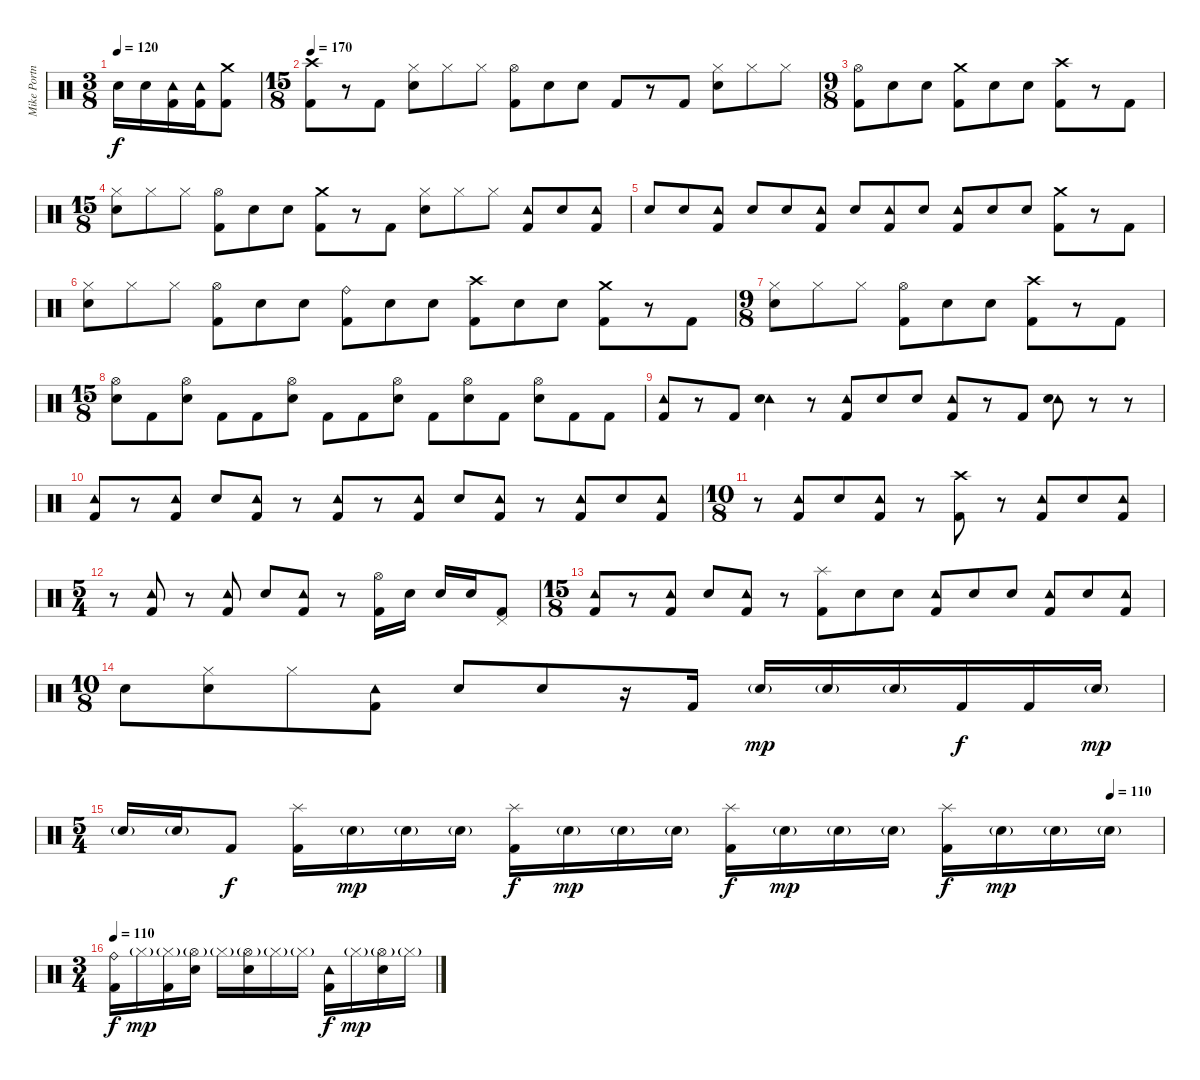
\track ("Mike Portnoy" "Mike Portn") {instrument percussion}
\staff {score}
\articulation defaults
\ts (3 8)
\tempo 120
\clef neutral
\ks c "Snare (hit) 2".16{dy f} "Snare (hit) 2".16
("Tambourine (hit)" "Kick (hit) 2").16 ("Tambourine (hit)" "Kick (hit) 2").16 ("Crash medium (hit)" "Kick (hit) 2").8 |
\ts (15 8)
\tempo 170
("Crash high (hit)" "Kick (hit) 2").8 r.8 "Kick (hit) 2".8 ("Hi-Hat (closed)" "Snare (hit) 2").8 "Hi-Hat (closed)".8 "Hi-Hat (closed)".8 ("Hi-Hat (open)" "Kick (hit) 2").8 "Snare (hit) 2".8 "Snare (hit) 2".8 "Kick (hit) 2".8 r.8 "Kick (hit) 2".8 ("Hi-Hat (closed)" "Snare (hit) 2").8 "Hi-Hat (closed)".8 "Hi-Hat (closed)".8 |
\ts (9 8)
("Hi-Hat (open)" "Kick (hit) 2").8 "Snare (hit) 2".8 "Snare (hit) 2".8 ("Crash medium (hit)" "Kick (hit) 2").8 "Snare (hit) 2".8 "Snare (hit) 2".8 ("Crash high (hit)" "Kick (hit) 2").8 r.8 "Kick (hit) 2".8 |
\ts (15 8)
("Hi-Hat (closed)" "Snare (hit) 2").8 "Hi-Hat (closed)".8 "Hi-Hat (closed)".8 ("Hi-Hat (open)" "Kick (hit) 2").8 "Snare (hit) 2".8 "Snare (hit) 2".8 ("Crash medium (hit)" "Kick (hit) 2").8 r.8 "Kick (hit) 2".8 ("Hi-Hat (closed)" "Snare (hit) 2").8 "Hi-Hat (closed)".8 "Hi-Hat (closed)".8 ("Tambourine (hit)" "Kick (hit) 2").8 "Snare (hit) 2".8 ("Tambourine (hit)" "Kick (hit) 2").8 |
"Snare (hit) 2".8 "Snare (hit) 2".8 ("Tambourine (hit)" "Kick (hit) 2").8 "Snare (hit) 2".8 "Snare (hit) 2".8 ("Tambourine (hit)" "Kick (hit) 2").8 "Snare (hit) 2".8 ("Tambourine (hit)" "Kick (hit) 2").8 "Snare (hit) 2".8 ("Tambourine (hit)" "Kick (hit) 2").8 "Snare (hit) 2".8 "Snare (hit) 2".8 ("Crash medium (hit)" "Kick (hit) 2").8 r.8 "Kick (hit) 2".8 |
("Hi-Hat (closed)" "Snare (hit) 2").8 "Hi-Hat (closed)".8 "Hi-Hat (closed)".8 ("Hi-Hat (open)" "Kick (hit) 2").8 "Snare (hit) 2".8 "Snare (hit) 2".8 ("Ride (bell)" "Kick (hit) 2").8 "Snare (hit) 2".8 "Snare (hit) 2".8 ("Crash high (hit)" "Kick (hit) 2").8 "Snare (hit) 2".8 "Snare (hit) 2".8 ("Crash medium (hit)" "Kick (hit) 2").8 r.8 "Kick (hit) 2".8 |
\ts (9 8)
("Hi-Hat (closed)" "Snare (hit) 2").8 "Hi-Hat (closed)".8 "Hi-Hat (closed)".8 ("Hi-Hat (open)" "Kick (hit) 2").8 "Snare (hit) 2".8 "Snare (hit) 2".8 ("Crash high (hit)" "Kick (hit) 2").8 r.8 "Kick (hit) 2".8 |
\ts (15 8)
("Hi-Hat (open)" "Snare (hit) 2").8 "Kick (hit) 2".8 ("Hi-Hat (open)" "Snare (hit) 2").8 "Kick (hit) 2".8 "Kick (hit) 2".8 ("Hi-Hat (open)" "Snare (hit) 2").8 "Kick (hit) 2".8 "Kick (hit) 2".8 ("Hi-Hat (open)" "Snare (hit) 2").8 "Kick (hit) 2".8 ("Hi-Hat (open)" "Snare (hit) 2").8 "Kick (hit) 2".8 ("Hi-Hat (open)" "Snare (hit) 2").8 "Kick (hit) 2".8 "Kick (hit) 2".8 |
("Tambourine (hit)" "Kick (hit) 2").8 r.8 "Kick (hit) 2".8 ("Tambourine (hit)" "Snare (hit) 2").4 r.8 ("Tambourine (hit)" "Kick (hit) 2").8 "Snare (hit) 2".8 "Snare (hit) 2".8 ("Tambourine (hit)" "Kick (hit) 2").8 r.8 "Kick (hit) 2".8 ("Tambourine (hit)" "Snare (hit) 2").8 r.8 r.8 |
("Tambourine (hit)" "Kick (hit) 2").8 r.8 ("Tambourine (hit)" "Kick (hit) 2").8 "Snare (hit) 2".8 ("Tambourine (hit)" "Kick (hit) 2").8 r.8 ("Tambourine (hit)" "Kick (hit) 2").8 r.8 ("Tambourine (hit)" "Kick (hit) 2").8 "Snare (hit) 2".8 ("Tambourine (hit)" "Kick (hit) 2").8 r.8 ("Tambourine (hit)" "Kick (hit) 2").8 "Snare (hit) 2".8 ("Tambourine (hit)" "Kick (hit) 2").8 |
\ts (10 8)
r.8 ("Tambourine (hit)" "Kick (hit) 2").8 "Snare (hit) 2".8 ("Tambourine (hit)" "Kick (hit) 2").8 r.8 ("Crash high (hit)" "Kick (hit) 2").8 r.8 ("Tambourine (hit)" "Kick (hit) 2").8 "Snare (hit) 2".8 ("Tambourine (hit)" "Kick (hit) 2").8 |
\ts (5 4)
r.8 ("Tambourine (hit)" "Kick (hit) 2").8 r.8 ("Tambourine (hit)" "Kick (hit) 2").8 "Snare (hit) 2".8 ("Tambourine (hit)" "Kick (hit) 2").8 r.8 ("Hi-Hat (open)" "Kick (hit) 2").16 "Snare (hit) 2".16 "Snare (hit) 2".16 "Snare (hit) 2".16 ("Pedal Hi-Hat (hit)" "Kick (hit) 2").8 |
\ts (15 8)
("Tambourine (hit)" "Kick (hit) 2").8 r.8 ("Tambourine (hit)" "Kick (hit) 2").8 "Snare (hit) 2".8 ("Tambourine (hit)" "Kick (hit) 2").8 r.8 ("Splash (hit)" "Kick (hit) 2").8 "Snare (hit) 2".8 "Snare (hit) 2".8 ("Tambourine (hit)" "Kick (hit) 2").8 "Snare (hit) 2".8 "Snare (hit) 2".8 ("Tambourine (hit)" "Kick (hit) 2").8 "Snare (hit) 2".8 ("Tambourine (hit)" "Kick (hit) 2").8 |
\ts (10 8)
"Snare (hit) 2".8 ("Hi-Hat (closed)" "Snare (hit) 2").8 "Hi-Hat (closed)".8 ("Tambourine (hit)" "Kick (hit) 2").8 "Snare (hit) 2".8 "Snare (hit) 2".8 r.16 "Kick (hit) 2".16 "Snare (hit) 2"{g}.16{dy mp} "Snare (hit) 2"{g}.16 "Snare (hit) 2"{g}.16 "Kick (hit) 2".16{dy f} "Kick (hit) 2".16 "Snare (hit) 2"{g}.16{dy mp} |
\ts (5 4)
\tempo (110 0.95)
"Snare (hit) 2"{g}.16 "Snare (hit) 2"{g}.16 "Kick (hit) 2".8{dy f} ("Splash (hit)" "Kick (hit) 2").16 "Snare (hit) 2"{g}.16{dy mp} "Snare (hit) 2"{g}.16 "Snare (hit) 2"{g}.16 ("Splash (hit)" "Kick (hit) 2").16{dy f} "Snare (hit) 2"{g}.16{dy mp} "Snare (hit) 2"{g}.16 "Snare (hit) 2"{g}.16 ("Splash (hit)" "Kick (hit) 2").16{dy f} "Snare (hit) 2"{g}.16{dy mp} "Snare (hit) 2"{g}.16 "Snare (hit) 2"{g}.16 ("Splash (hit)" "Kick (hit) 2").16{dy f} "Snare (hit) 2"{g}.16{dy mp} "Snare (hit) 2"{g}.16 "Snare (hit) 2"{g}.16 |
\ts (3 4)
\tempo 110
("Ride (bell)" "Kick (hit) 2").16{dy f} "Hi-Hat (closed)"{g}.16{dy mp} ("Hi-Hat (closed)"{g} "Kick (hit) 2").16 ("Hi-Hat (open)"{g} "Snare (hit) 2").16 "Hi-Hat (closed)"{g}.16 ("Hi-Hat (open)"{g} "Snare (hit) 2").16 "Hi-Hat (closed)"{g}.16 "Hi-Hat (closed)"{g}.16 ("Tambourine (hit)" "Kick (hit) 2").16{dy f} "Hi-Hat (closed)"{g}.16{dy mp} ("Hi-Hat (open)"{g} "Snare (hit) 2").16 "Hi-Hat (closed)"{g}.16
